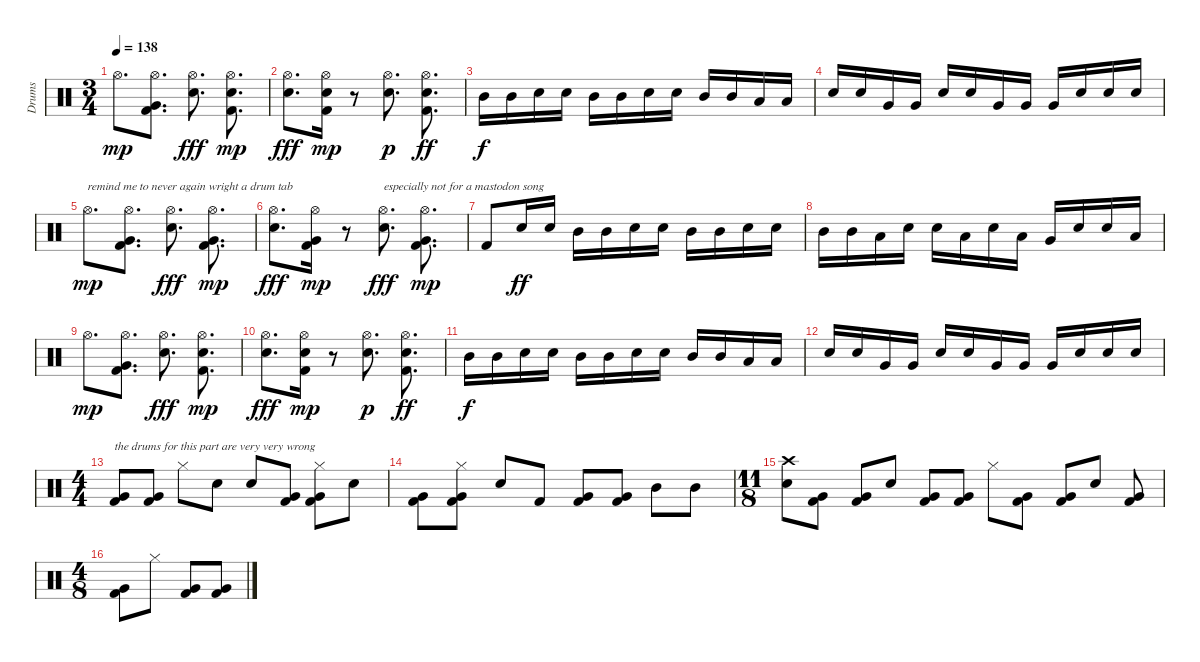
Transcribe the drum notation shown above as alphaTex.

\track ("Drums" "Drums") {instrument percussion}
\staff {score}
\articulation defaults
\ts (3 4)
\tempo 138
\clef neutral
\ks c "Hi-Hat (open)".8{d dy mp}
("Hi-Hat (open)" "Very Low Tom (hit)" "Kick (hit) 2").8{d} ("Hi-Hat (open)" "Electric Snare (hit)").8{d dy fff} ("Hi-Hat (open)" "Electric Snare (hit)" "Kick (hit) 2").8{d dy mp} |
("Hi-Hat (open)" "Electric Snare (hit)").8{d dy fff} ("Hi-Hat (open)" "Electric Snare (hit)" "Kick (hit) 2").16{dy mp} r.8 ("Hi-Hat (open)" "Electric Snare (hit)").8{d dy p} ("Hi-Hat (open)" "Electric Snare (hit)" "Kick (hit) 2").8{d dy ff} |
"Mid Tom (hit)".16{dy f} "Mid Tom (hit)".16 "Electric Snare (hit)".16 "Electric Snare (hit)".16 "Mid Tom (hit)".16 "Mid Tom (hit)".16 "Electric Snare (hit)".16 "Electric Snare (hit)".16 "Mid Tom (hit)".16 "Mid Tom (hit)".16 "Low Tom (hit)".16 "Low Tom (hit)".16 |
"Electric Snare (hit)".16 "Electric Snare (hit)".16 "Very Low Tom (hit)".16 "Very Low Tom (hit)".16 "Electric Snare (hit)".16 "Electric Snare (hit)".16 "Very Low Tom (hit)".16 "Very Low Tom (hit)".16 "Very Low Tom (hit)".16 "Electric Snare (hit)".16 "Electric Snare (hit)".16 "Electric Snare (hit)".16 |
"Hi-Hat (open)".8{d txt "remind me to never again wright a drum tab" dy mp} ("Hi-Hat (open)" "Very Low Tom (hit)" "Kick (hit) 2").8{d} ("Hi-Hat (open)" "Electric Snare (hit)").8{d dy fff} ("Hi-Hat (open)" "Very Low Tom (hit)" "Kick (hit) 2").8{d dy mp} |
("Hi-Hat (open)" "Electric Snare (hit)").8{d dy fff} ("Hi-Hat (open)" "Very Low Tom (hit)" "Kick (hit) 2").16{dy mp} r.8 ("Hi-Hat (open)" "Electric Snare (hit)").8{d txt "especially not for a mastodon song" dy fff} ("Hi-Hat (open)" "Very Low Tom (hit)" "Kick (hit) 2").8{d dy mp} |
"Kick (hit) 2".8 "Electric Snare (hit)".16{dy ff} "Electric Snare (hit)".16 "Mid Tom (hit)".16 "Mid Tom (hit)".16 "Electric Snare (hit)".16 "Electric Snare (hit)".16 "Mid Tom (hit)".16 "Mid Tom (hit)".16 "Electric Snare (hit)".16 "Electric Snare (hit)".16 |
"Mid Tom (hit)".16 "Mid Tom (hit)".16 "Low Tom (hit)".16 "Electric Snare (hit)".16 "Electric Snare (hit)".16 "Low Tom (hit)".16 "Electric Snare (hit)".16 "Low Tom (hit)".16 "Very Low Tom (hit)".16 "Electric Snare (hit)".16 "Electric Snare (hit)".16 "Low Tom (hit)".16 |
"Hi-Hat (open)".8{d dy mp} ("Hi-Hat (open)" "Very Low Tom (hit)" "Kick (hit) 2").8{d} ("Hi-Hat (open)" "Electric Snare (hit)").8{d dy fff} ("Hi-Hat (open)" "Electric Snare (hit)" "Kick (hit) 2").8{d dy mp} |
("Hi-Hat (open)" "Electric Snare (hit)").8{d dy fff} ("Hi-Hat (open)" "Electric Snare (hit)" "Kick (hit) 2").16{dy mp} r.8 ("Hi-Hat (open)" "Electric Snare (hit)").8{d dy p} ("Hi-Hat (open)" "Electric Snare (hit)" "Kick (hit) 2").8{d dy ff} |
"Mid Tom (hit)".16{dy f} "Mid Tom (hit)".16 "Electric Snare (hit)".16 "Electric Snare (hit)".16 "Mid Tom (hit)".16 "Mid Tom (hit)".16 "Electric Snare (hit)".16 "Electric Snare (hit)".16 "Mid Tom (hit)".16 "Mid Tom (hit)".16 "Low Tom (hit)".16 "Low Tom (hit)".16 |
"Electric Snare (hit)".16 "Electric Snare (hit)".16 "Very Low Tom (hit)".16 "Very Low Tom (hit)".16 "Electric Snare (hit)".16 "Electric Snare (hit)".16 "Very Low Tom (hit)".16 "Very Low Tom (hit)".16 "Very Low Tom (hit)".16 "Electric Snare (hit)".16 "Electric Snare (hit)".16 "Electric Snare (hit)".16 |
\ts (4 4)
("Very Low Tom (hit)" "Kick (hit) 2").8{txt "the drums for this part are very very wrong"} ("Very Low Tom (hit)" "Kick (hit) 2").8 "Hi-Hat (closed)".8 "Electric Snare (hit)".8 "Electric Snare (hit)".8 ("Very Low Tom (hit)" "Kick (hit) 2").8 ("Hi-Hat (closed)" "Very Low Tom (hit)" "Kick (hit) 2").8 "Electric Snare (hit)".8 |
("Very Low Tom (hit)" "Kick (hit) 2").8 ("Hi-Hat (closed)" "Very Low Tom (hit)" "Kick (hit) 2").8 "Electric Snare (hit)".8 "Kick (hit) 2".8 ("Very Low Tom (hit)" "Kick (hit) 2").8 ("Very Low Tom (hit)" "Kick (hit) 2").8 "Mid Tom (hit)".8 "Mid Tom (hit)".8 |
\ts (11 8)
("Crash high (hit)" "Electric Snare (hit)").8 ("Very Low Tom (hit)" "Kick (hit) 2").8 ("Very Low Tom (hit)" "Kick (hit) 2").8 "Electric Snare (hit)".8 ("Very Low Tom (hit)" "Kick (hit) 2").8 ("Very Low Tom (hit)" "Kick (hit) 2").8 "Hi-Hat (closed)".8 ("Very Low Tom (hit)" "Kick (hit) 2").8 ("Very Low Tom (hit)" "Kick (hit) 2").8 "Electric Snare (hit)".8 ("Very Low Tom (hit)" "Kick (hit) 2").8 |
\ts (4 8)
("Very Low Tom (hit)" "Kick (hit) 2").8 "Hi-Hat (closed)".8 ("Very Low Tom (hit)" "Kick (hit) 2").8 ("Very Low Tom (hit)" "Kick (hit) 2").8
